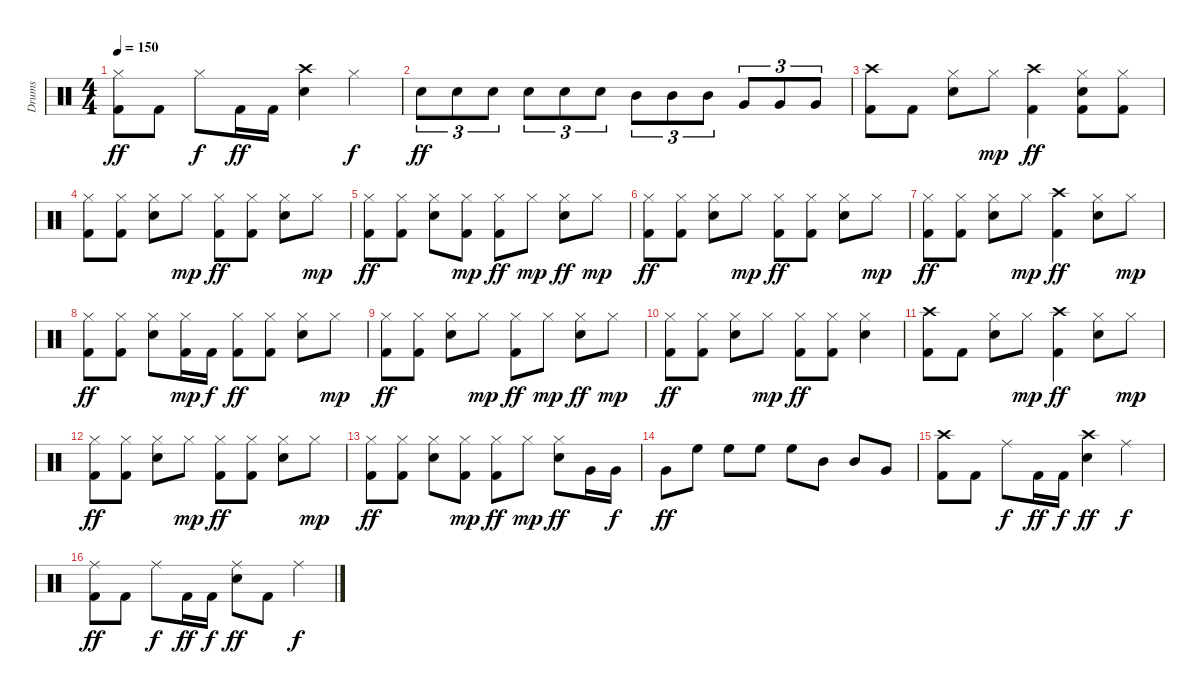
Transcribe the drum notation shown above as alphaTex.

\track ("Drums" "Drums") {instrument percussion}
\staff {score}
\articulation defaults
\ts (4 4)
\tempo 150
\clef neutral
\ks c
("Hi-Hat (closed)" "Kick (hit) 2").8{dy ff} "Kick (hit) 2".8 "Hi-Hat (closed)".8{dy f} "Kick (hit) 2".16{dy ff} "Kick (hit) 2".16 ("Crash high (hit)" "Snare (hit) 2").4 "Hi-Hat (closed)".4{dy f} |
"Snare (hit) 2".8{tu (3 2) dy ff} "Snare (hit) 2".8{tu (3 2)} "Snare (hit) 2".8{tu (3 2)} "Snare (hit) 2".8{tu (3 2)} "Snare (hit) 2".8{tu (3 2)} "Snare (hit) 2".8{tu (3 2)} "Mid Tom (hit)".8{tu (3 2)} "Mid Tom (hit)".8{tu (3 2)} "Mid Tom (hit)".8{tu (3 2)} "Very Low Tom (hit)".8{tu (3 2)} "Very Low Tom (hit)".8{tu (3 2)} "Very Low Tom (hit)".8{tu (3 2)} |
("Crash high (hit)" "Kick (hit) 2").8 "Kick (hit) 2".8 ("Hi-Hat (closed)" "Snare (hit) 2").8 "Hi-Hat (closed)".8{dy mp} ("Crash high (hit)" "Kick (hit) 2").4{dy ff} ("Snare (hit) 2" "Hi-Hat (closed)" "Kick (hit) 2").8 ("Hi-Hat (closed)" "Kick (hit) 2").8 |
("Hi-Hat (closed)" "Kick (hit) 2").8 ("Hi-Hat (closed)" "Kick (hit) 2").8 ("Snare (hit) 2" "Hi-Hat (closed)").8 "Hi-Hat (closed)".8{dy mp} ("Hi-Hat (closed)" "Kick (hit) 2").8{dy ff} ("Hi-Hat (closed)" "Kick (hit) 2").8 ("Snare (hit) 2" "Hi-Hat (closed)").8 "Hi-Hat (closed)".8{dy mp} |
("Hi-Hat (closed)" "Kick (hit) 2").8{dy ff} ("Hi-Hat (closed)" "Kick (hit) 2").8 ("Snare (hit) 2" "Hi-Hat (closed)").8 ("Kick (hit) 2" "Hi-Hat (closed)").8{dy mp} ("Kick (hit) 2" "Hi-Hat (closed)").8{dy ff} "Hi-Hat (closed)".8{dy mp} ("Snare (hit) 2" "Hi-Hat (closed)").8{dy ff} "Hi-Hat (closed)".8{dy mp} |
("Hi-Hat (closed)" "Kick (hit) 2").8{dy ff} ("Hi-Hat (closed)" "Kick (hit) 2").8 ("Snare (hit) 2" "Hi-Hat (closed)").8 "Hi-Hat (closed)".8{dy mp} ("Hi-Hat (closed)" "Kick (hit) 2").8{dy ff} ("Hi-Hat (closed)" "Kick (hit) 2").8 ("Snare (hit) 2" "Hi-Hat (closed)").8 "Hi-Hat (closed)".8{dy mp} |
("Hi-Hat (closed)" "Kick (hit) 2").8{dy ff} ("Hi-Hat (closed)" "Kick (hit) 2").8 ("Snare (hit) 2" "Hi-Hat (closed)").8 "Hi-Hat (closed)".8{dy mp} ("Kick (hit) 2" "Crash high (hit)").4{dy ff} ("Hi-Hat (closed)" "Snare (hit) 2").8 "Hi-Hat (closed)".8{dy mp} |
("Hi-Hat (closed)" "Kick (hit) 2").8{dy ff} ("Hi-Hat (closed)" "Kick (hit) 2").8 ("Snare (hit) 2" "Hi-Hat (closed)").8 ("Kick (hit) 2" "Hi-Hat (closed)").16{dy mp} "Kick (hit) 2".16{dy f} ("Hi-Hat (closed)" "Kick (hit) 2").8{dy ff} ("Hi-Hat (closed)" "Kick (hit) 2").8 ("Snare (hit) 2" "Hi-Hat (closed)").8 "Hi-Hat (closed)".8{dy mp} |
("Hi-Hat (closed)" "Kick (hit) 2").8{dy ff} ("Hi-Hat (closed)" "Kick (hit) 2").8 ("Snare (hit) 2" "Hi-Hat (closed)").8 "Hi-Hat (closed)".8{dy mp} ("Kick (hit) 2" "Hi-Hat (closed)").8{dy ff} "Hi-Hat (closed)".8{dy mp} ("Snare (hit) 2" "Hi-Hat (closed)").8{dy ff} "Hi-Hat (closed)".8{dy mp} |
("Hi-Hat (closed)" "Kick (hit) 2").8{dy ff} ("Hi-Hat (closed)" "Kick (hit) 2").8 ("Snare (hit) 2" "Hi-Hat (closed)").8 "Hi-Hat (closed)".8{dy mp} ("Hi-Hat (closed)" "Kick (hit) 2").8{dy ff} ("Hi-Hat (closed)" "Kick (hit) 2").8 ("Snare (hit) 2" "Hi-Hat (closed)").4 |
("Crash high (hit)" "Kick (hit) 2").8 "Kick (hit) 2".8 ("Hi-Hat (closed)" "Snare (hit) 2").8 "Hi-Hat (closed)".8{dy mp} ("Crash high (hit)" "Kick (hit) 2").4{dy ff} ("Snare (hit) 2" "Hi-Hat (closed)").8 "Hi-Hat (closed)".8{dy mp} |
("Hi-Hat (closed)" "Kick (hit) 2").8{dy ff} ("Hi-Hat (closed)" "Kick (hit) 2").8 ("Snare (hit) 2" "Hi-Hat (closed)").8 "Hi-Hat (closed)".8{dy mp} ("Hi-Hat (closed)" "Kick (hit) 2").8{dy ff} ("Hi-Hat (closed)" "Kick (hit) 2").8 ("Snare (hit) 2" "Hi-Hat (closed)").8 "Hi-Hat (closed)".8{dy mp} |
("Hi-Hat (closed)" "Kick (hit) 2").8{dy ff} ("Hi-Hat (closed)" "Kick (hit) 2").8 ("Snare (hit) 2" "Hi-Hat (closed)").8 ("Kick (hit) 2" "Hi-Hat (closed)").8{dy mp} ("Kick (hit) 2" "Hi-Hat (closed)").8{dy ff} "Hi-Hat (closed)".8{dy mp} ("Hi-Hat (closed)" "Snare (hit) 2").8{dy ff} "Very Low Tom (hit)".16 "Very Low Tom (hit)".16{dy f} |
"Very Low Tom (hit)".8{dy ff} "High Floor Tom (hit)".8 "High Floor Tom (hit)".8 "High Floor Tom (hit)".8 "High Floor Tom (hit)".8 "Mid Tom (hit)".8 "Mid Tom (hit)".8 "Very Low Tom (hit)".8 |
("Crash high (hit)" "Kick (hit) 2").8 "Kick (hit) 2".8 "Ride (middle)".8{dy f} "Kick (hit) 2".16{dy ff} "Kick (hit) 2".16{dy f} ("Snare (hit) 2" "Crash high (hit)").4{dy ff} "Ride (middle)".4{dy f} |
("Ride (middle)" "Kick (hit) 2").8{dy ff} "Kick (hit) 2".8 "Ride (middle)".8{dy f} "Kick (hit) 2".16{dy ff} "Kick (hit) 2".16{dy f} ("Ride (middle)" "Snare (hit) 2").8{dy ff} "Kick (hit) 2".8 "Ride (middle)".4{dy f}
